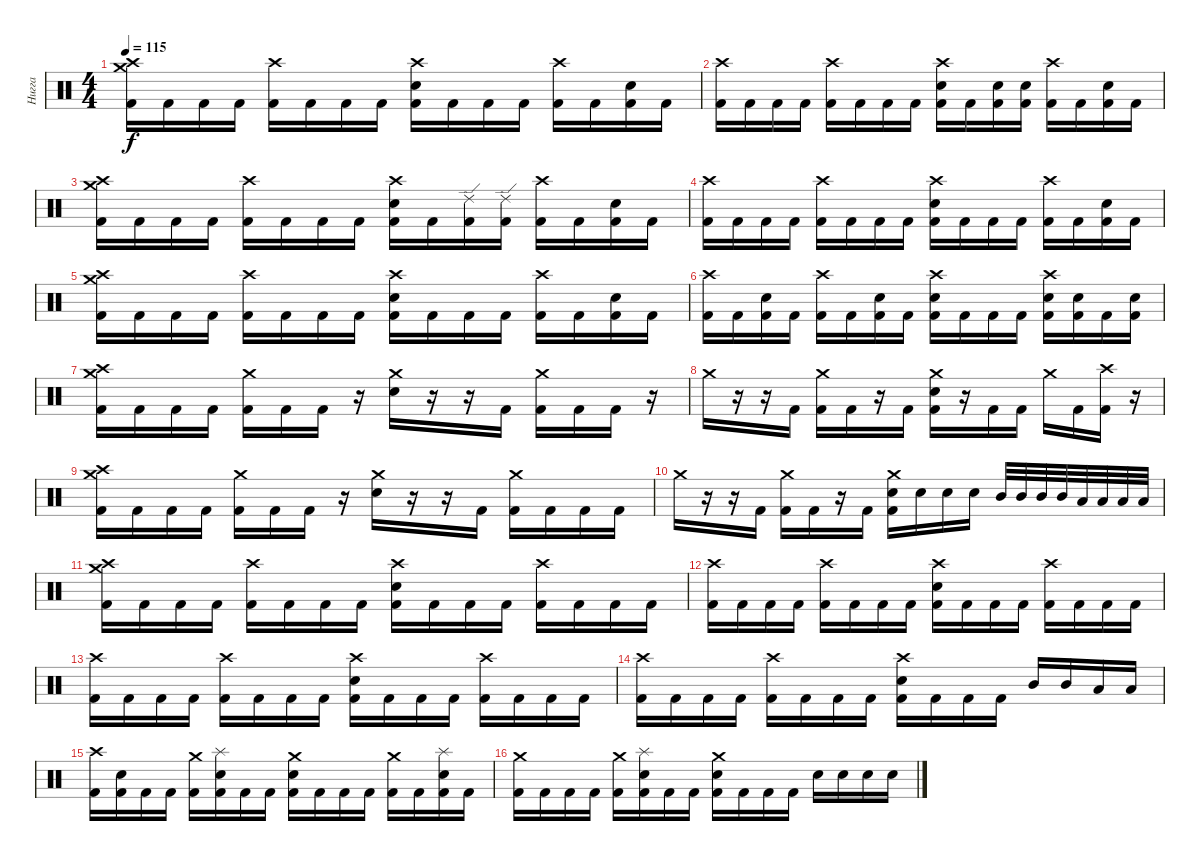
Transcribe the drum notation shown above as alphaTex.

\track ("Нигга" "Нигга") {instrument percussion}
\staff
\articulation defaults
\ts (4 4)
\tempo 115
\clef neutral
\ks c
("Crash high (hit)" "Crash medium (hit)" "Kick (hit) 2").16{dy f} "Kick (hit) 2".16 "Kick (hit) 2".16 "Kick (hit) 2".16 ("Crash high (hit)" "Kick (hit) 2").16 "Kick (hit) 2".16 "Kick (hit) 2".16 "Kick (hit) 2".16 ("Crash high (hit)" "Electric Snare (hit)" "Kick (hit) 2").16 "Kick (hit) 2".16 "Kick (hit) 2".16 "Kick (hit) 2".16 ("Crash high (hit)" "Kick (hit) 2").16 "Kick (hit) 2".16 ("Electric Snare (hit)" "Kick (hit) 2").16 "Kick (hit) 2".16 |
("Crash high (hit)" "Kick (hit) 2").16 "Kick (hit) 2".16 "Kick (hit) 2".16 "Kick (hit) 2".16 ("Crash high (hit)" "Kick (hit) 2").16 "Kick (hit) 2".16 "Kick (hit) 2".16 "Kick (hit) 2".16 ("Crash high (hit)" "Electric Snare (hit)" "Kick (hit) 2").16 "Kick (hit) 2".16 ("Electric Snare (hit)" "Kick (hit) 2").16 ("Electric Snare (hit)" "Kick (hit) 2").16 ("Crash high (hit)" "Kick (hit) 2").16 "Kick (hit) 2".16 ("Electric Snare (hit)" "Kick (hit) 2").16 "Kick (hit) 2".16 |
("Crash high (hit)" "Crash medium (hit)" "Kick (hit) 2").16 "Kick (hit) 2".16 "Kick (hit) 2".16 "Kick (hit) 2".16 ("Crash high (hit)" "Kick (hit) 2").16 "Kick (hit) 2".16 "Kick (hit) 2".16 "Kick (hit) 2".16 ("Crash high (hit)" "Electric Snare (hit)" "Kick (hit) 2").16 "Kick (hit) 2".16 ("Ride (edge) 2" "Kick (hit) 2").16 ("Ride (edge) 2" "Kick (hit) 2").16 ("Crash high (hit)" "Kick (hit) 2").16 "Kick (hit) 2".16 ("Electric Snare (hit)" "Kick (hit) 2").16 "Kick (hit) 2".16 |
("Crash high (hit)" "Kick (hit) 2").16 "Kick (hit) 2".16 "Kick (hit) 2".16 "Kick (hit) 2".16 ("Crash high (hit)" "Kick (hit) 2").16 "Kick (hit) 2".16 "Kick (hit) 2".16 "Kick (hit) 2".16 ("Crash high (hit)" "Electric Snare (hit)" "Kick (hit) 2").16 "Kick (hit) 2".16 "Kick (hit) 2".16 "Kick (hit) 2".16 ("Crash high (hit)" "Kick (hit) 2").16 "Kick (hit) 2".16 ("Electric Snare (hit)" "Kick (hit) 2").16 "Kick (hit) 2".16 |
("Crash high (hit)" "Crash medium (hit)" "Kick (hit) 2").16 "Kick (hit) 2".16 "Kick (hit) 2".16 "Kick (hit) 2".16 ("Crash high (hit)" "Kick (hit) 2").16 "Kick (hit) 2".16 "Kick (hit) 2".16 "Kick (hit) 2".16 ("Crash high (hit)" "Electric Snare (hit)" "Kick (hit) 2").16 "Kick (hit) 2".16 "Kick (hit) 2".16 "Kick (hit) 2".16 ("Crash high (hit)" "Kick (hit) 2").16 "Kick (hit) 2".16 ("Electric Snare (hit)" "Kick (hit) 2").16 "Kick (hit) 2".16 |
("Crash high (hit)" "Kick (hit) 2").16 "Kick (hit) 2".16 ("Electric Snare (hit)" "Kick (hit) 2").16 "Kick (hit) 2".16 ("Crash high (hit)" "Kick (hit) 2").16 "Kick (hit) 2".16 ("Electric Snare (hit)" "Kick (hit) 2").16 "Kick (hit) 2".16 ("Crash high (hit)" "Electric Snare (hit)" "Kick (hit) 2").16 "Kick (hit) 2".16 "Kick (hit) 2".16 "Kick (hit) 2".16 ("Crash high (hit)" "Electric Snare (hit)" "Kick (hit) 2").16 ("Electric Snare (hit)" "Kick (hit) 2").16 "Kick (hit) 2".16 ("Electric Snare (hit)" "Kick (hit) 2").16 |
("Crash high (hit)" "Crash medium (hit)" "Kick (hit) 2").16 "Kick (hit) 2".16 "Kick (hit) 2".16 "Kick (hit) 2".16 ("Crash medium (hit)" "Kick (hit) 2").16 "Kick (hit) 2".16 "Kick (hit) 2".16 r.16 ("Crash medium (hit)" "Electric Snare (hit)").16 r.16 r.16 "Kick (hit) 2".16 ("Crash medium (hit)" "Kick (hit) 2").16 "Kick (hit) 2".16 "Kick (hit) 2".16 r.16 |
"Crash medium (hit)".16 r.16 r.16 "Kick (hit) 2".16 ("Crash medium (hit)" "Kick (hit) 2").16 "Kick (hit) 2".16 r.16 "Kick (hit) 2".16 ("Crash medium (hit)" "Electric Snare (hit)" "Kick (hit) 2").16 r.16 "Kick (hit) 2".16 "Kick (hit) 2".16 "Crash medium (hit)".16 "Kick (hit) 2".16 ("Crash high (hit)" "Kick (hit) 2").16 r.16 |
("Crash high (hit)" "Crash medium (hit)" "Kick (hit) 2").16 "Kick (hit) 2".16 "Kick (hit) 2".16 "Kick (hit) 2".16 ("Crash medium (hit)" "Kick (hit) 2").16 "Kick (hit) 2".16 "Kick (hit) 2".16 r.16 ("Crash medium (hit)" "Electric Snare (hit)").16 r.16 r.16 "Kick (hit) 2".16 ("Crash medium (hit)" "Kick (hit) 2").16 "Kick (hit) 2".16 "Kick (hit) 2".16 "Kick (hit) 2".16 |
"Crash medium (hit)".16 r.16 r.16 "Kick (hit) 2".16 ("Crash medium (hit)" "Kick (hit) 2").16 "Kick (hit) 2".16 r.16 "Kick (hit) 2".16 ("Crash medium (hit)" "Electric Snare (hit)" "Kick (hit) 2").16 "Electric Snare (hit)".16 "Electric Snare (hit)".16 "Electric Snare (hit)".16 "Mid Tom (hit)".32 "Mid Tom (hit)".32 "Mid Tom (hit)".32 "Mid Tom (hit)".32 "Low Tom (hit)".32 "Low Tom (hit)".32 "Low Tom (hit)".32 "Low Tom (hit)".32 |
("Crash high (hit)" "Crash medium (hit)" "Kick (hit) 2").16 "Kick (hit) 2".16 "Kick (hit) 2".16 "Kick (hit) 2".16 ("Crash high (hit)" "Kick (hit) 2").16 "Kick (hit) 2".16 "Kick (hit) 2".16 "Kick (hit) 2".16 ("Crash high (hit)" "Electric Snare (hit)" "Kick (hit) 2").16 "Kick (hit) 2".16 "Kick (hit) 2".16 "Kick (hit) 2".16 ("Crash high (hit)" "Kick (hit) 2").16 "Kick (hit) 2".16 "Kick (hit) 2".16 "Kick (hit) 2".16 |
("Crash high (hit)" "Kick (hit) 2").16 "Kick (hit) 2".16 "Kick (hit) 2".16 "Kick (hit) 2".16 ("Crash high (hit)" "Kick (hit) 2").16 "Kick (hit) 2".16 "Kick (hit) 2".16 "Kick (hit) 2".16 ("Crash high (hit)" "Electric Snare (hit)" "Kick (hit) 2").16 "Kick (hit) 2".16 "Kick (hit) 2".16 "Kick (hit) 2".16 ("Crash high (hit)" "Kick (hit) 2").16 "Kick (hit) 2".16 "Kick (hit) 2".16 "Kick (hit) 2".16 |
("Crash high (hit)" "Kick (hit) 2").16 "Kick (hit) 2".16 "Kick (hit) 2".16 "Kick (hit) 2".16 ("Crash high (hit)" "Kick (hit) 2").16 "Kick (hit) 2".16 "Kick (hit) 2".16 "Kick (hit) 2".16 ("Crash high (hit)" "Electric Snare (hit)" "Kick (hit) 2").16 "Kick (hit) 2".16 "Kick (hit) 2".16 "Kick (hit) 2".16 ("Crash high (hit)" "Kick (hit) 2").16 "Kick (hit) 2".16 "Kick (hit) 2".16 "Kick (hit) 2".16 |
("Crash high (hit)" "Kick (hit) 2").16 "Kick (hit) 2".16 "Kick (hit) 2".16 "Kick (hit) 2".16 ("Crash high (hit)" "Kick (hit) 2").16 "Kick (hit) 2".16 "Kick (hit) 2".16 "Kick (hit) 2".16 ("Crash high (hit)" "Electric Snare (hit)" "Kick (hit) 2").16 "Kick (hit) 2".16 "Kick (hit) 2".16 "Kick (hit) 2".16 "Mid Tom (hit)".16 "Mid Tom (hit)".16 "Low Tom (hit)".16 "Low Tom (hit)".16 |
("Crash high (hit)" "Kick (hit) 2").16 ("Electric Snare (hit)" "Kick (hit) 2").16 "Kick (hit) 2".16 "Kick (hit) 2".16 ("Crash medium (hit)" "Kick (hit) 2").16 ("Splash (hit)" "Electric Snare (hit)" "Kick (hit) 2").16 "Kick (hit) 2".16 "Kick (hit) 2".16 ("Crash medium (hit)" "Electric Snare (hit)" "Kick (hit) 2").16 "Kick (hit) 2".16 "Kick (hit) 2".16 "Kick (hit) 2".16 ("Crash medium (hit)" "Kick (hit) 2").16 "Kick (hit) 2".16 ("Splash (hit)" "Electric Snare (hit)" "Kick (hit) 2").16 "Kick (hit) 2".16 |
("Crash medium (hit)" "Kick (hit) 2").16 "Kick (hit) 2".16 "Kick (hit) 2".16 "Kick (hit) 2".16 ("Crash medium (hit)" "Kick (hit) 2").16 ("Splash (hit)" "Electric Snare (hit)" "Kick (hit) 2").16 "Kick (hit) 2".16 "Kick (hit) 2".16 ("Crash medium (hit)" "Electric Snare (hit)" "Kick (hit) 2").16 "Kick (hit) 2".16 "Kick (hit) 2".16 "Kick (hit) 2".16 "Electric Snare (hit)".16 "Electric Snare (hit)".16 "Electric Snare (hit)".16 "Electric Snare (hit)".16
